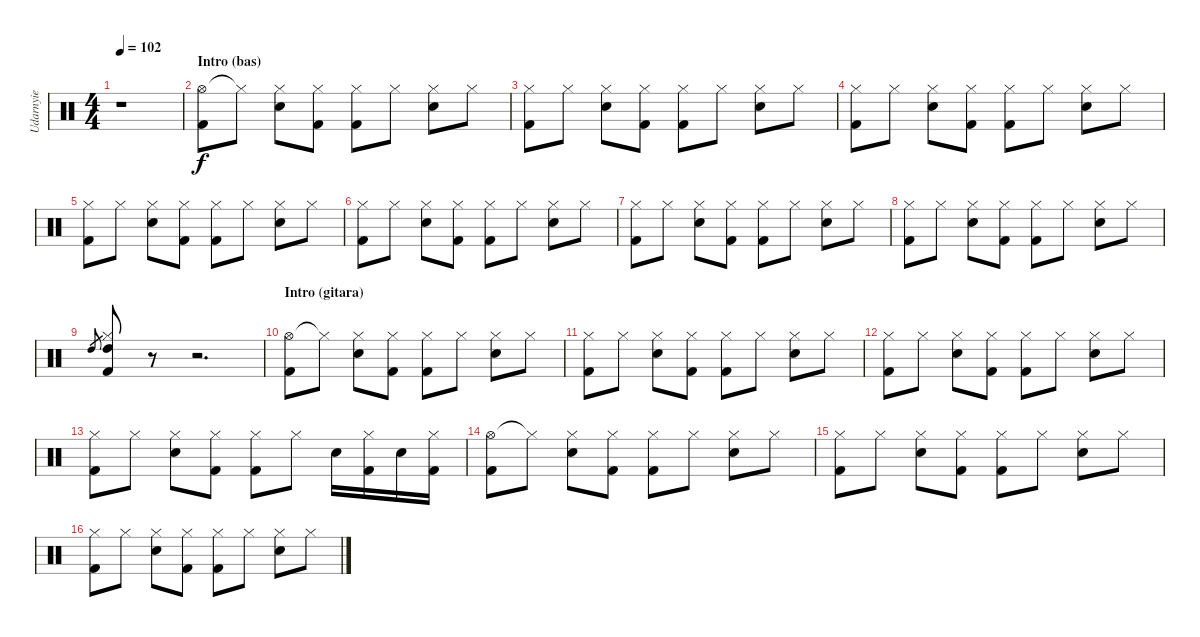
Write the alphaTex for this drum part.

\track ("Udarnyie" "Udarnyie") {instrument percussion}
\staff {score}
\articulation defaults
\ts (4 4)
\tempo 102
\clef neutral
\ks c
r.1{dy f} |
\section ("" "Intro (bas)")
("Hi-Hat (open)" "Kick (hit) 2").8 "Hi-Hat (closed)"{t}.8 ("Hi-Hat (closed)" "Snare (hit) 2").8 ("Hi-Hat (closed)" "Kick (hit) 2").8 ("Hi-Hat (closed)" "Kick (hit) 2").8 "Hi-Hat (closed)".8 ("Hi-Hat (closed)" "Snare (hit) 2").8 "Hi-Hat (closed)".8 |
("Hi-Hat (closed)" "Kick (hit) 2").8 "Hi-Hat (closed)".8 ("Hi-Hat (closed)" "Snare (hit) 2").8 ("Hi-Hat (closed)" "Kick (hit) 2").8 ("Hi-Hat (closed)" "Kick (hit) 2").8 "Hi-Hat (closed)".8 ("Hi-Hat (closed)" "Snare (hit) 2").8 "Hi-Hat (closed)".8 |
("Hi-Hat (closed)" "Kick (hit) 2").8 "Hi-Hat (closed)".8 ("Hi-Hat (closed)" "Snare (hit) 2").8 ("Hi-Hat (closed)" "Kick (hit) 2").8 ("Hi-Hat (closed)" "Kick (hit) 2").8 "Hi-Hat (closed)".8 ("Hi-Hat (closed)" "Snare (hit) 2").8 "Hi-Hat (closed)".8 |
("Hi-Hat (closed)" "Kick (hit) 2").8 "Hi-Hat (closed)".8 ("Hi-Hat (closed)" "Snare (hit) 2").8 ("Hi-Hat (closed)" "Kick (hit) 2").8 ("Hi-Hat (closed)" "Kick (hit) 2").8 "Hi-Hat (closed)".8 ("Hi-Hat (closed)" "Snare (hit) 2").8 "Hi-Hat (closed)".8 |
("Hi-Hat (closed)" "Kick (hit) 2").8 "Hi-Hat (closed)".8 ("Hi-Hat (closed)" "Snare (hit) 2").8 ("Hi-Hat (closed)" "Kick (hit) 2").8 ("Hi-Hat (closed)" "Kick (hit) 2").8 "Hi-Hat (closed)".8 ("Hi-Hat (closed)" "Snare (hit) 2").8 "Hi-Hat (closed)".8 |
("Hi-Hat (closed)" "Kick (hit) 2").8 "Hi-Hat (closed)".8 ("Hi-Hat (closed)" "Snare (hit) 2").8 ("Hi-Hat (closed)" "Kick (hit) 2").8 ("Hi-Hat (closed)" "Kick (hit) 2").8 "Hi-Hat (closed)".8 ("Hi-Hat (closed)" "Snare (hit) 2").8 "Hi-Hat (closed)".8 |
("Hi-Hat (closed)" "Kick (hit) 2").8 "Hi-Hat (closed)".8 ("Hi-Hat (closed)" "Snare (hit) 2").8 ("Hi-Hat (closed)" "Kick (hit) 2").8 ("Hi-Hat (closed)" "Kick (hit) 2").8 "Hi-Hat (closed)".8 ("Hi-Hat (closed)" "Snare (hit) 2").8 "Hi-Hat (closed)".8 |
"High Tom (hit)".8{gr} ("Hi-Hat (closed)" "Kick (hit) 2" "High Tom (hit)").8 r.8 r.2{d} |
\section ("" "Intro (gitara)")
("Hi-Hat (open)" "Kick (hit) 2").8 "Hi-Hat (closed)"{t}.8 ("Hi-Hat (closed)" "Snare (hit) 2").8 ("Hi-Hat (closed)" "Kick (hit) 2").8 ("Hi-Hat (closed)" "Kick (hit) 2").8 "Hi-Hat (closed)".8 ("Hi-Hat (closed)" "Snare (hit) 2").8 "Hi-Hat (closed)".8 |
("Hi-Hat (closed)" "Kick (hit) 2").8 "Hi-Hat (closed)".8 ("Hi-Hat (closed)" "Snare (hit) 2").8 ("Hi-Hat (closed)" "Kick (hit) 2").8 ("Hi-Hat (closed)" "Kick (hit) 2").8 "Hi-Hat (closed)".8 ("Hi-Hat (closed)" "Snare (hit) 2").8 "Hi-Hat (closed)".8 |
("Hi-Hat (closed)" "Kick (hit) 2").8 "Hi-Hat (closed)".8 ("Hi-Hat (closed)" "Snare (hit) 2").8 ("Hi-Hat (closed)" "Kick (hit) 2").8 ("Hi-Hat (closed)" "Kick (hit) 2").8 "Hi-Hat (closed)".8 ("Hi-Hat (closed)" "Snare (hit) 2").8 "Hi-Hat (closed)".8 |
("Hi-Hat (closed)" "Kick (hit) 2").8 "Hi-Hat (closed)".8 ("Hi-Hat (closed)" "Snare (hit) 2").8 ("Hi-Hat (closed)" "Kick (hit) 2").8 ("Hi-Hat (closed)" "Kick (hit) 2").8 "Hi-Hat (closed)".8 "Snare (hit) 2".16 ("Hi-Hat (closed)" "Kick (hit) 2").16 "Snare (hit) 2".16 ("Hi-Hat (closed)" "Kick (hit) 2").16 |
("Hi-Hat (open)" "Kick (hit) 2").8 "Hi-Hat (closed)"{t}.8 ("Hi-Hat (closed)" "Snare (hit) 2").8 ("Hi-Hat (closed)" "Kick (hit) 2").8 ("Hi-Hat (closed)" "Kick (hit) 2").8 "Hi-Hat (closed)".8 ("Hi-Hat (closed)" "Snare (hit) 2").8 "Hi-Hat (closed)".8 |
("Hi-Hat (closed)" "Kick (hit) 2").8 "Hi-Hat (closed)".8 ("Hi-Hat (closed)" "Snare (hit) 2").8 ("Hi-Hat (closed)" "Kick (hit) 2").8 ("Hi-Hat (closed)" "Kick (hit) 2").8 "Hi-Hat (closed)".8 ("Hi-Hat (closed)" "Snare (hit) 2").8 "Hi-Hat (closed)".8 |
("Hi-Hat (closed)" "Kick (hit) 2").8 "Hi-Hat (closed)".8 ("Hi-Hat (closed)" "Snare (hit) 2").8 ("Hi-Hat (closed)" "Kick (hit) 2").8 ("Hi-Hat (closed)" "Kick (hit) 2").8 "Hi-Hat (closed)".8 ("Hi-Hat (closed)" "Snare (hit) 2").8 "Hi-Hat (closed)".8
